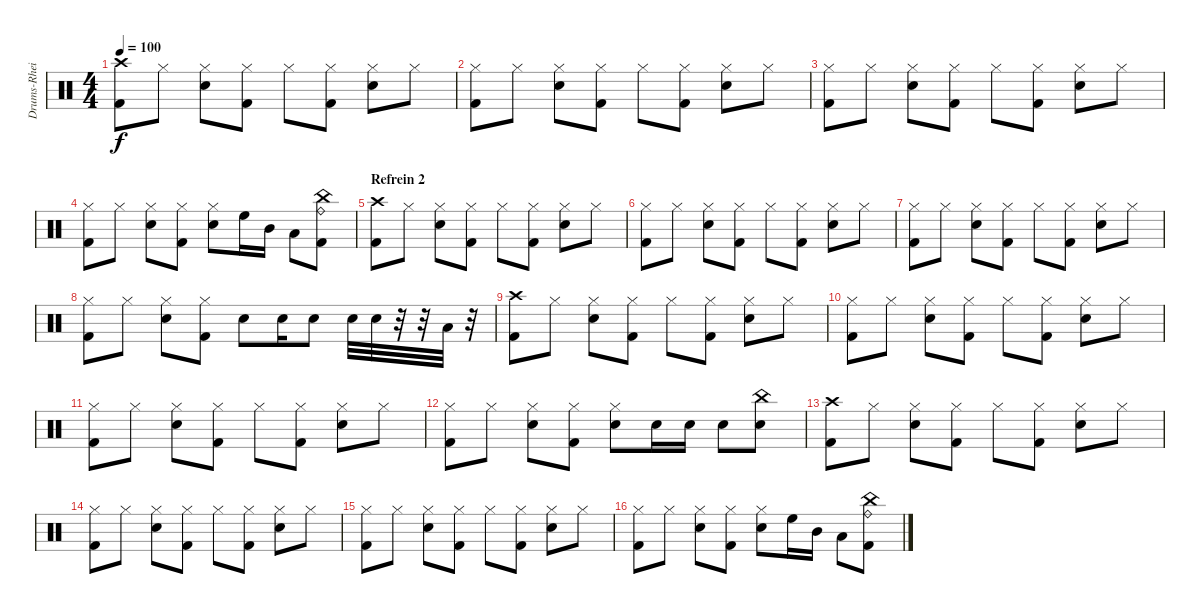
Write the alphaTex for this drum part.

\track ("Drums-Rhein" "Drums-Rhei") {instrument percussion}
\staff {score}
\articulation defaults
\ts (4 4)
\tempo 100
\clef neutral
\ks c
("Crash high (hit)" "Kick (hit) 2").8{dy f} "Hi-Hat (closed)".8 ("Hi-Hat (closed)" "Snare (hit) 2").8 ("Hi-Hat (closed)" "Kick (hit) 2").8 "Hi-Hat (closed)".8 ("Hi-Hat (closed)" "Kick (hit) 2").8 ("Hi-Hat (closed)" "Snare (hit) 2").8 "Hi-Hat (closed)".8 |
("Hi-Hat (closed)" "Kick (hit) 2").8 "Hi-Hat (closed)".8 ("Hi-Hat (closed)" "Snare (hit) 2").8 ("Hi-Hat (closed)" "Kick (hit) 2").8 "Hi-Hat (closed)".8 ("Hi-Hat (closed)" "Kick (hit) 2").8 ("Hi-Hat (closed)" "Snare (hit) 2").8 "Hi-Hat (closed)".8 |
("Hi-Hat (closed)" "Kick (hit) 2").8 "Hi-Hat (closed)".8 ("Hi-Hat (closed)" "Snare (hit) 2").8 ("Hi-Hat (closed)" "Kick (hit) 2").8 "Hi-Hat (closed)".8 ("Hi-Hat (closed)" "Kick (hit) 2").8 ("Hi-Hat (closed)" "Snare (hit) 2").8 "Hi-Hat (closed)".8 |
("Hi-Hat (closed)" "Kick (hit) 2").8 "Hi-Hat (closed)".8 ("Hi-Hat (closed)" "Snare (hit) 2").8 ("Hi-Hat (closed)" "Kick (hit) 2").8 ("Hi-Hat (closed)" "Snare (hit) 2").8 "High Floor Tom (hit)".16 "Mid Tom (hit)".16 "Low Tom (hit)".8 ("Ride (bell)" "China (hit)" "Kick (hit) 2").8 |
\section ("" "Refrein 2")
("Crash high (hit)" "Kick (hit) 2").8 "Hi-Hat (closed)".8 ("Hi-Hat (closed)" "Snare (hit) 2").8 ("Hi-Hat (closed)" "Kick (hit) 2").8 "Hi-Hat (closed)".8 ("Hi-Hat (closed)" "Kick (hit) 2").8 ("Hi-Hat (closed)" "Snare (hit) 2").8 "Hi-Hat (closed)".8 |
("Hi-Hat (closed)" "Kick (hit) 2").8 "Hi-Hat (closed)".8 ("Hi-Hat (closed)" "Snare (hit) 2").8 ("Hi-Hat (closed)" "Kick (hit) 2").8 "Hi-Hat (closed)".8 ("Hi-Hat (closed)" "Kick (hit) 2").8 ("Hi-Hat (closed)" "Snare (hit) 2").8 "Hi-Hat (closed)".8 |
("Hi-Hat (closed)" "Kick (hit) 2").8 "Hi-Hat (closed)".8 ("Hi-Hat (closed)" "Snare (hit) 2").8 ("Hi-Hat (closed)" "Kick (hit) 2").8 "Hi-Hat (closed)".8 ("Hi-Hat (closed)" "Kick (hit) 2").8 ("Hi-Hat (closed)" "Snare (hit) 2").8 "Hi-Hat (closed)".8 |
("Hi-Hat (closed)" "Kick (hit) 2").8 "Hi-Hat (closed)".8 ("Hi-Hat (closed)" "Snare (hit) 2").8 ("Hi-Hat (closed)" "Kick (hit) 2").8 "Snare (hit) 2".8 "Snare (hit) 2".16 "Snare (hit) 2".8 "Snare (hit) 2".32 "Snare (hit) 2".32 r.32 r.32 "Low Tom (hit)".32 r.32 |
("Crash high (hit)" "Kick (hit) 2").8 "Hi-Hat (closed)".8 ("Hi-Hat (closed)" "Snare (hit) 2").8 ("Hi-Hat (closed)" "Kick (hit) 2").8 "Hi-Hat (closed)".8 ("Hi-Hat (closed)" "Kick (hit) 2").8 ("Hi-Hat (closed)" "Snare (hit) 2").8 "Hi-Hat (closed)".8 |
("Hi-Hat (closed)" "Kick (hit) 2").8 "Hi-Hat (closed)".8 ("Hi-Hat (closed)" "Snare (hit) 2").8 ("Hi-Hat (closed)" "Kick (hit) 2").8 "Hi-Hat (closed)".8 ("Hi-Hat (closed)" "Kick (hit) 2").8 ("Hi-Hat (closed)" "Snare (hit) 2").8 "Hi-Hat (closed)".8 |
("Hi-Hat (closed)" "Kick (hit) 2").8 "Hi-Hat (closed)".8 ("Hi-Hat (closed)" "Snare (hit) 2").8 ("Hi-Hat (closed)" "Kick (hit) 2").8 "Hi-Hat (closed)".8 ("Hi-Hat (closed)" "Kick (hit) 2").8 ("Hi-Hat (closed)" "Snare (hit) 2").8 "Hi-Hat (closed)".8 |
("Hi-Hat (closed)" "Kick (hit) 2").8 "Hi-Hat (closed)".8 ("Hi-Hat (closed)" "Snare (hit) 2").8 ("Hi-Hat (closed)" "Kick (hit) 2").8 ("Hi-Hat (closed)" "Snare (hit) 2").8 "Snare (hit) 2".16 "Snare (hit) 2".16 "Snare (hit) 2".8 ("Snare (hit) 2" "China (hit)").8 |
("Crash high (hit)" "Kick (hit) 2").8 "Hi-Hat (closed)".8 ("Hi-Hat (closed)" "Snare (hit) 2").8 ("Hi-Hat (closed)" "Kick (hit) 2").8 "Hi-Hat (closed)".8 ("Hi-Hat (closed)" "Kick (hit) 2").8 ("Hi-Hat (closed)" "Snare (hit) 2").8 "Hi-Hat (closed)".8 |
("Hi-Hat (closed)" "Kick (hit) 2").8 "Hi-Hat (closed)".8 ("Hi-Hat (closed)" "Snare (hit) 2").8 ("Hi-Hat (closed)" "Kick (hit) 2").8 "Hi-Hat (closed)".8 ("Hi-Hat (closed)" "Kick (hit) 2").8 ("Hi-Hat (closed)" "Snare (hit) 2").8 "Hi-Hat (closed)".8 |
("Hi-Hat (closed)" "Kick (hit) 2").8 "Hi-Hat (closed)".8 ("Hi-Hat (closed)" "Snare (hit) 2").8 ("Hi-Hat (closed)" "Kick (hit) 2").8 "Hi-Hat (closed)".8 ("Hi-Hat (closed)" "Kick (hit) 2").8 ("Hi-Hat (closed)" "Snare (hit) 2").8 "Hi-Hat (closed)".8 |
("Hi-Hat (closed)" "Kick (hit) 2").8 "Hi-Hat (closed)".8 ("Hi-Hat (closed)" "Snare (hit) 2").8 ("Hi-Hat (closed)" "Kick (hit) 2").8 ("Hi-Hat (closed)" "Snare (hit) 2").8 "High Floor Tom (hit)".16 "Mid Tom (hit)".16 "Low Tom (hit)".8 ("Ride (bell)" "China (hit)" "Kick (hit) 2").8
